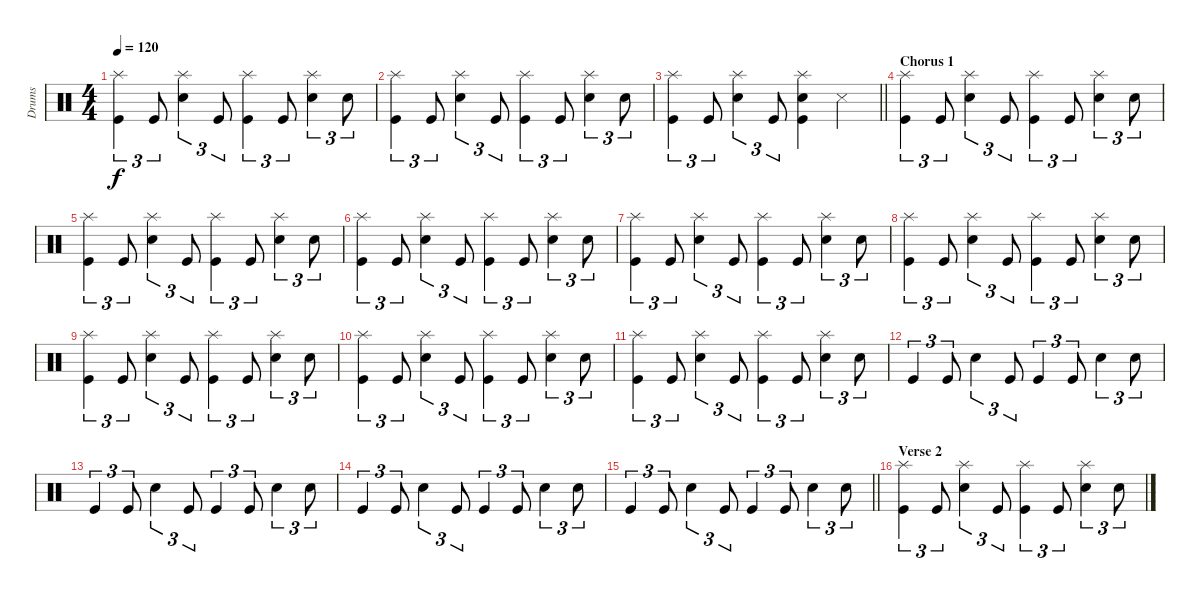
\track ("Drums" "Drums") {instrument percussion}
\staff {score}
\articulation defaults
\ts (4 4)
\tempo 120
\clef neutral
\ks c
("Splash (hit)" "Kick (hit)").4{tu (3 2) dy f} "Kick (hit)".8{tu (3 2)} ("Splash (hit)" "Electric Snare (hit)").4{tu (3 2)} "Kick (hit)".8{tu (3 2)} ("Splash (hit)" "Kick (hit)").4{tu (3 2)} "Kick (hit)".8{tu (3 2)} ("Splash (hit)" "Electric Snare (hit)").4{tu (3 2)} "Electric Snare (hit)".8{tu (3 2)} |
("Splash (hit)" "Kick (hit)").4{tu (3 2)} "Kick (hit)".8{tu (3 2)} ("Splash (hit)" "Electric Snare (hit)").4{tu (3 2)} "Kick (hit)".8{tu (3 2)} ("Splash (hit)" "Kick (hit)").4{tu (3 2)} "Kick (hit)".8{tu (3 2)} ("Splash (hit)" "Electric Snare (hit)").4{tu (3 2)} "Electric Snare (hit)".8{tu (3 2)} |
\barLineRight lightlight
("Splash (hit)" "Kick (hit)").4{tu (3 2)} "Kick (hit)".8{tu (3 2)} ("Splash (hit)" "Electric Snare (hit)").4{tu (3 2)} "Kick (hit)".8{tu (3 2)} ("Splash (hit)" "Electric Snare (hit)" "Kick (hit)").4 "Metronome (hit)".4 |
\section ("" "Chorus 1")
("Splash (hit)" "Kick (hit)").4{tu (3 2)} "Kick (hit)".8{tu (3 2)} ("Splash (hit)" "Electric Snare (hit)").4{tu (3 2)} "Kick (hit)".8{tu (3 2)} ("Splash (hit)" "Kick (hit)").4{tu (3 2)} "Kick (hit)".8{tu (3 2)} ("Splash (hit)" "Electric Snare (hit)").4{tu (3 2)} "Electric Snare (hit)".8{tu (3 2)} |
("Splash (hit)" "Kick (hit)").4{tu (3 2)} "Kick (hit)".8{tu (3 2)} ("Splash (hit)" "Electric Snare (hit)").4{tu (3 2)} "Kick (hit)".8{tu (3 2)} ("Splash (hit)" "Kick (hit)").4{tu (3 2)} "Kick (hit)".8{tu (3 2)} ("Splash (hit)" "Electric Snare (hit)").4{tu (3 2)} "Electric Snare (hit)".8{tu (3 2)} |
("Splash (hit)" "Kick (hit)").4{tu (3 2)} "Kick (hit)".8{tu (3 2)} ("Splash (hit)" "Electric Snare (hit)").4{tu (3 2)} "Kick (hit)".8{tu (3 2)} ("Splash (hit)" "Kick (hit)").4{tu (3 2)} "Kick (hit)".8{tu (3 2)} ("Splash (hit)" "Electric Snare (hit)").4{tu (3 2)} "Electric Snare (hit)".8{tu (3 2)} |
("Splash (hit)" "Kick (hit)").4{tu (3 2)} "Kick (hit)".8{tu (3 2)} ("Splash (hit)" "Electric Snare (hit)").4{tu (3 2)} "Kick (hit)".8{tu (3 2)} ("Splash (hit)" "Kick (hit)").4{tu (3 2)} "Kick (hit)".8{tu (3 2)} ("Splash (hit)" "Electric Snare (hit)").4{tu (3 2)} "Electric Snare (hit)".8{tu (3 2)} |
("Splash (hit)" "Kick (hit)").4{tu (3 2)} "Kick (hit)".8{tu (3 2)} ("Splash (hit)" "Electric Snare (hit)").4{tu (3 2)} "Kick (hit)".8{tu (3 2)} ("Splash (hit)" "Kick (hit)").4{tu (3 2)} "Kick (hit)".8{tu (3 2)} ("Splash (hit)" "Electric Snare (hit)").4{tu (3 2)} "Electric Snare (hit)".8{tu (3 2)} |
("Splash (hit)" "Kick (hit)").4{tu (3 2)} "Kick (hit)".8{tu (3 2)} ("Splash (hit)" "Electric Snare (hit)").4{tu (3 2)} "Kick (hit)".8{tu (3 2)} ("Splash (hit)" "Kick (hit)").4{tu (3 2)} "Kick (hit)".8{tu (3 2)} ("Splash (hit)" "Electric Snare (hit)").4{tu (3 2)} "Electric Snare (hit)".8{tu (3 2)} |
("Splash (hit)" "Kick (hit)").4{tu (3 2)} "Kick (hit)".8{tu (3 2)} ("Splash (hit)" "Electric Snare (hit)").4{tu (3 2)} "Kick (hit)".8{tu (3 2)} ("Splash (hit)" "Kick (hit)").4{tu (3 2)} "Kick (hit)".8{tu (3 2)} ("Splash (hit)" "Electric Snare (hit)").4{tu (3 2)} "Electric Snare (hit)".8{tu (3 2)} |
("Splash (hit)" "Kick (hit)").4{tu (3 2)} "Kick (hit)".8{tu (3 2)} ("Splash (hit)" "Electric Snare (hit)").4{tu (3 2)} "Kick (hit)".8{tu (3 2)} ("Splash (hit)" "Kick (hit)").4{tu (3 2)} "Kick (hit)".8{tu (3 2)} ("Splash (hit)" "Electric Snare (hit)").4{tu (3 2)} "Electric Snare (hit)".8{tu (3 2)} |
"Kick (hit)".4{tu (3 2)} "Kick (hit)".8{tu (3 2)} "Electric Snare (hit)".4{tu (3 2)} "Kick (hit)".8{tu (3 2)} "Kick (hit)".4{tu (3 2)} "Kick (hit)".8{tu (3 2)} "Electric Snare (hit)".4{tu (3 2)} "Electric Snare (hit)".8{tu (3 2)} |
"Kick (hit)".4{tu (3 2)} "Kick (hit)".8{tu (3 2)} "Electric Snare (hit)".4{tu (3 2)} "Kick (hit)".8{tu (3 2)} "Kick (hit)".4{tu (3 2)} "Kick (hit)".8{tu (3 2)} "Electric Snare (hit)".4{tu (3 2)} "Electric Snare (hit)".8{tu (3 2)} |
"Kick (hit)".4{tu (3 2)} "Kick (hit)".8{tu (3 2)} "Electric Snare (hit)".4{tu (3 2)} "Kick (hit)".8{tu (3 2)} "Kick (hit)".4{tu (3 2)} "Kick (hit)".8{tu (3 2)} "Electric Snare (hit)".4{tu (3 2)} "Electric Snare (hit)".8{tu (3 2)} |
\barLineRight lightlight "Kick (hit)".4{tu (3 2)} "Kick (hit)".8{tu (3 2)} "Electric Snare (hit)".4{tu (3 2)} "Kick (hit)".8{tu (3 2)} "Kick (hit)".4{tu (3 2)} "Kick (hit)".8{tu (3 2)} "Electric Snare (hit)".4{tu (3 2)} "Electric Snare (hit)".8{tu (3 2)}
|
\section ("" "Verse 2")
("Splash (hit)" "Kick (hit)").4{tu (3 2)} "Kick (hit)".8{tu (3 2)} ("Splash (hit)" "Electric Snare (hit)").4{tu (3 2)} "Kick (hit)".8{tu (3 2)} ("Splash (hit)" "Kick (hit)").4{tu (3 2)} "Kick (hit)".8{tu (3 2)} ("Splash (hit)" "Electric Snare (hit)").4{tu (3 2)} "Electric Snare (hit)".8{tu (3 2)}
